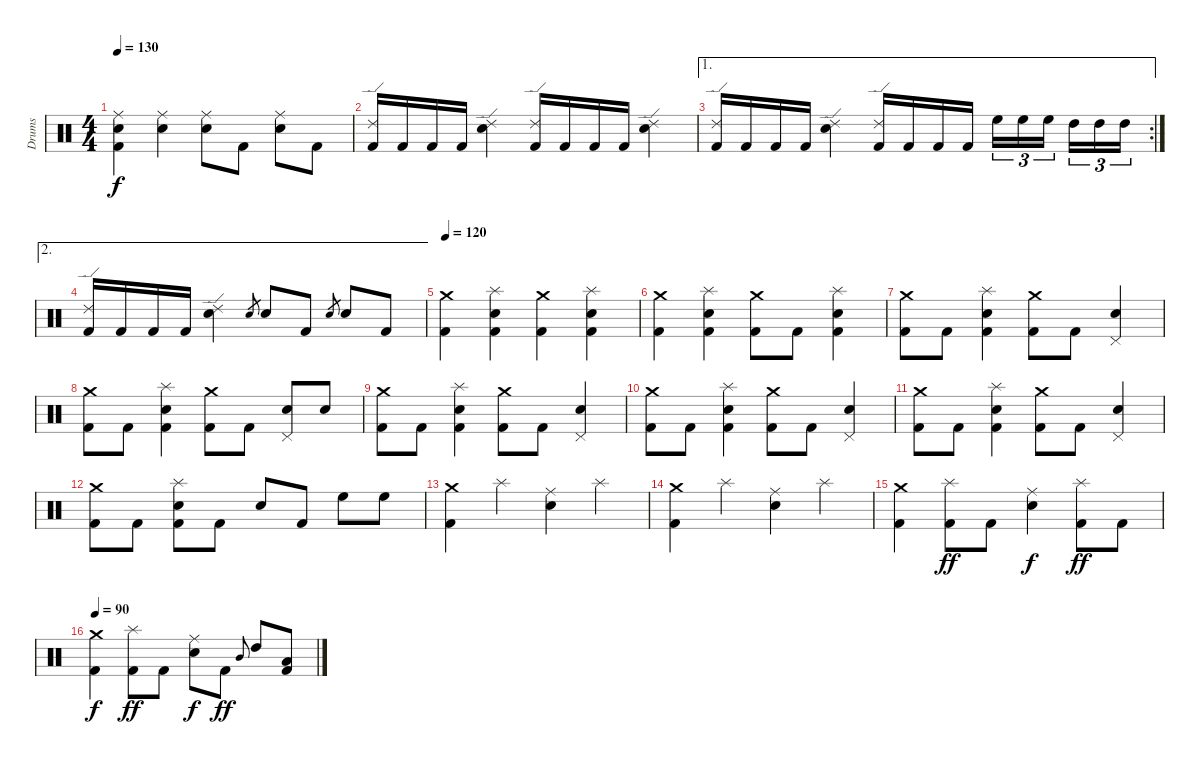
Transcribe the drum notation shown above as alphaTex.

\track ("Drums" "Drums") {instrument percussion}
\staff {score}
\articulation defaults
\ts (4 4)
\tempo 130
\clef neutral
\ks c
("Ride (middle)" "Snare (hit) 2" "Kick (hit) 2").4{dy f} ("Ride (middle)" "Snare (hit) 2").4 ("Ride (middle)" "Snare (hit) 2").8 "Kick (hit) 2".8 ("Ride (middle)" "Snare (hit) 2").8 "Kick (hit) 2".8 |
("Ride (edge) 2" "Kick (hit) 2").16 "Kick (hit) 2".16 "Kick (hit) 2".16 "Kick (hit) 2".16 ("Ride (edge) 2" "Snare (hit) 2").4 ("Ride (edge) 2" "Kick (hit) 2").16 "Kick (hit) 2".16 "Kick (hit) 2".16 "Kick (hit) 2".16 ("Ride (edge) 2" "Snare (hit) 2").4 |
\ae 1
\rc 2
("Ride (edge) 2" "Kick (hit) 2").16 "Kick (hit) 2".16 "Kick (hit) 2".16 "Kick (hit) 2".16 ("Ride (edge) 2" "Snare (hit) 2").4 ("Ride (edge) 2" "Kick (hit) 2").16 "Kick (hit) 2".16 "Kick (hit) 2".16 "Kick (hit) 2".16 "High Floor Tom (hit)".16{tu (3 2)} "High Floor Tom (hit)".16{tu (3 2)} "High Floor Tom (hit)".16{tu (3 2) beam splitsecondary} "High Tom (hit)".16{tu (3 2)} "High Tom (hit)".16{tu (3 2)} "High Tom (hit)".16{tu (3 2)} |
\ae 2
("Ride (edge) 2" "Kick (hit) 2").16 "Kick (hit) 2".16 "Kick (hit) 2".16 "Kick (hit) 2".16 ("Ride (edge) 2" "Snare (hit) 2").4 "Snare (hit) 2".8{gr} "Snare (hit) 2".8 "Kick (hit) 2".8 "Snare (hit) 2".8{gr} "Snare (hit) 2".8 "Kick (hit) 2".8 |
\tempo 120
("Crash medium (hit)" "Kick (hit) 2").4 ("Splash (hit)" "Snare (hit) 2" "Kick (hit) 2").4 ("Crash medium (hit)" "Kick (hit) 2").4 ("Splash (hit)" "Snare (hit) 2" "Kick (hit) 2").4 |
("Crash medium (hit)" "Kick (hit) 2").4 ("Splash (hit)" "Snare (hit) 2" "Kick (hit) 2").4 ("Crash medium (hit)" "Kick (hit) 2").8 "Kick (hit) 2".8 ("Splash (hit)" "Snare (hit) 2" "Kick (hit) 2").4 |
("Crash medium (hit)" "Kick (hit) 2").8 "Kick (hit) 2".8 ("Splash (hit)" "Snare (hit) 2" "Kick (hit) 2").4 ("Crash medium (hit)" "Kick (hit) 2").8 "Kick (hit) 2".8 ("Pedal Hi-Hat (hit)" "Snare (hit) 2").4 |
("Crash medium (hit)" "Kick (hit) 2").8 "Kick (hit) 2".8 ("Splash (hit)" "Snare (hit) 2" "Kick (hit) 2").4 ("Crash medium (hit)" "Kick (hit) 2").8 "Kick (hit) 2".8 ("Pedal Hi-Hat (hit)" "Snare (hit) 2").8 "Electric Snare (hit)".8 |
("Crash medium (hit)" "Kick (hit) 2").8 "Kick (hit) 2".8 ("Splash (hit)" "Snare (hit) 2" "Kick (hit) 2").4 ("Crash medium (hit)" "Kick (hit) 2").8 "Kick (hit) 2".8 ("Pedal Hi-Hat (hit)" "Snare (hit) 2").4 |
("Crash medium (hit)" "Kick (hit) 2").8 "Kick (hit) 2".8 ("Splash (hit)" "Snare (hit) 2" "Kick (hit) 2").4 ("Crash medium (hit)" "Kick (hit) 2").8 "Kick (hit) 2".8 ("Pedal Hi-Hat (hit)" "Snare (hit) 2").4 |
("Crash medium (hit)" "Kick (hit) 2").8 "Kick (hit) 2".8 ("Splash (hit)" "Snare (hit) 2" "Kick (hit) 2").4 ("Crash medium (hit)" "Kick (hit) 2").8 "Kick (hit) 2".8 ("Pedal Hi-Hat (hit)" "Snare (hit) 2").4 |
("Crash medium (hit)" "Kick (hit) 2").8 "Kick (hit) 2".8 ("Splash (hit)" "Snare (hit) 2" "Kick (hit) 2").8 "Kick (hit) 2".8 "Snare (hit) 2".8 "Kick (hit) 2".8 "High Floor Tom (hit)".8 "High Floor Tom (hit)".8 |
("Crash medium (hit)" "Kick (hit) 2").4 "Splash (hit)".4 ("Ride (middle)" "Snare (hit) 2").4 "Splash (hit)".4 |
("Crash medium (hit)" "Kick (hit) 2").4 "Splash (hit)".4 ("Ride (middle)" "Snare (hit) 2").4 "Splash (hit)".4 |
("Crash medium (hit)" "Kick (hit) 2").4 ("Splash (hit)" "Kick (hit) 2").8{dy ff} "Kick (hit) 2".8 ("Ride (middle)" "Snare (hit) 2").4{dy f} ("Splash (hit)" "Kick (hit) 2").8{dy ff} "Kick (hit) 2".8 |
\tempo 90
("Crash medium (hit)" "Kick (hit) 2").4{dy f} ("Splash (hit)" "Kick (hit) 2").8{dy ff} "Kick (hit) 2".8 ("Ride (middle)" "Snare (hit) 2").8{dy f} "Kick (hit) 2".8{dy ff} "Mid Tom (hit)".8{gr onbeat} "High Tom (hit)".8 ("Low Tom (hit)" "Kick (hit) 2").8
